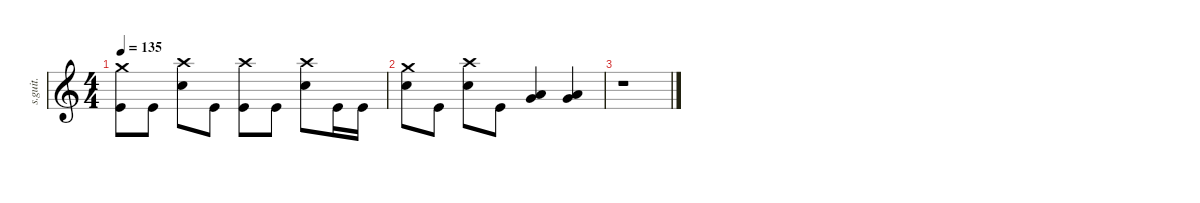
\defaultSystemsLayout 4
\hideDynamics
\bracketExtendMode nobrackets
\track ("Jen Ledger" "s.guit.") {instrument percussion}
\staff {score}
\articulation defaults
\ts (4 4)
\tempo 135
\clef g2
\ks c
("Crash medium (hit)" "Kick (hit)").8{lyrics (0 "") lyrics (1 "") lyrics (2 "") lyrics (3 "") lyrics (4 "") dy f} "Kick (hit)".8{lyrics (0 "") lyrics (1 "") lyrics (2 "") lyrics (3 "") lyrics (4 "") dy fff} ("Crash high (hit)" "Snare (hit) 2").8{lyrics (0 "") lyrics (1 "") lyrics (2 "") lyrics (3 "") lyrics (4 "") dy f} "Kick (hit)".8{lyrics (0 "") lyrics (1 "") lyrics (2 "") lyrics (3 "") lyrics (4 "") dy fff} ("Crash high (hit)" "Kick (hit)").8{lyrics (0 "") lyrics (1 "") lyrics (2 "") lyrics (3 "") lyrics (4 "")} "Kick (hit)".8{lyrics (0 "") lyrics (1 "") lyrics (2 "") lyrics (3 "") lyrics (4 "")} ("Crash high (hit)" "Snare (hit) 2").8{lyrics (0 "") lyrics (1 "") lyrics (2 "") lyrics (3 "") lyrics (4 "") dy f} "Kick (hit)".16{lyrics (0 "") lyrics (1 "") lyrics (2 "") lyrics (3 "") lyrics (4 "") dy fff} "Kick (hit)".16{lyrics (0 "") lyrics (1 "") lyrics (2 "") lyrics (3 "") lyrics (4 "")} |
("Crash medium (hit)" "Snare (hit) 2").8{lyrics (0 "") lyrics (1 "") lyrics (2 "") lyrics (3 "") lyrics (4 "") dy f} "Kick (hit)".8{lyrics (0 "") lyrics (1 "") lyrics (2 "") lyrics (3 "") lyrics (4 "") dy fff} ("Crash high (hit)" "Snare (hit) 2").8{lyrics (0 "") lyrics (1 "") lyrics (2 "") lyrics (3 "") lyrics (4 "") dy f} "Kick (hit)".8{lyrics (0 "") lyrics (1 "") lyrics (2 "") lyrics (3 "") lyrics (4 "") dy fff} ("Low Tom (hit)" "Very Low Tom (hit)").4{lyrics (0 "") lyrics (1 "") lyrics (2 "") lyrics (3 "") lyrics (4 "")} ("Low Tom (hit)" "Very Low Tom (hit)").4{lyrics (0 "") lyrics (1 "") lyrics (2 "") lyrics (3 "") lyrics (4 "")} |
r.1
